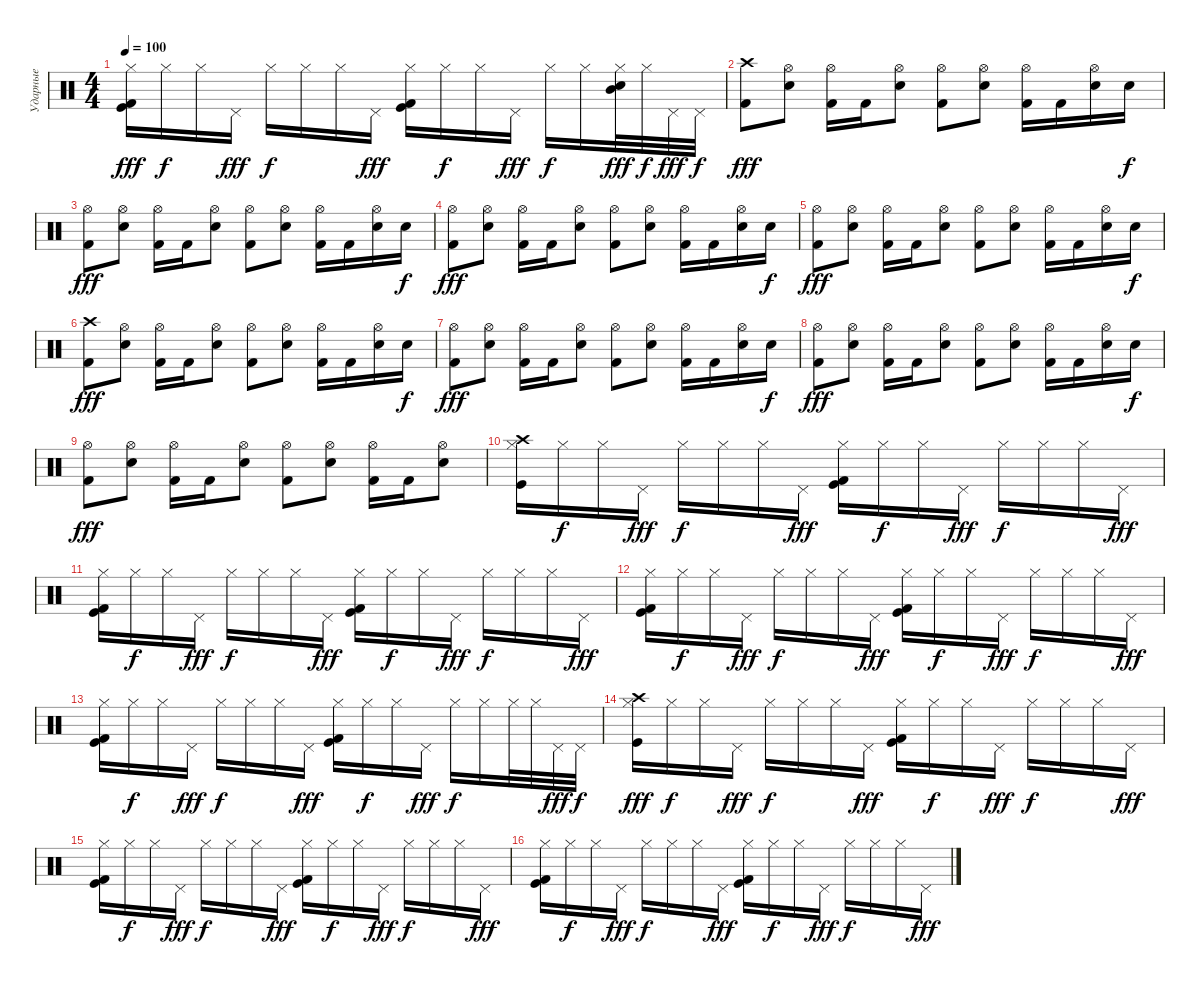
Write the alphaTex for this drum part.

\track ("Ударные" "Ударные") {instrument percussion}
\staff {score}
\articulation defaults
\ts (4 4)
\tempo 100
\clef neutral
\ks c
("Hi-Hat (closed)" "Kick (hit)" "Kick (hit) 2").16{dy fff} "Hi-Hat (closed)".16{dy f} "Hi-Hat (closed)".16 "Pedal Hi-Hat (hit)".16{dy fff} "Hi-Hat (closed)".16{dy f} "Hi-Hat (closed)".16 "Hi-Hat (closed)".16 "Pedal Hi-Hat (hit)".16{dy fff} ("Hi-Hat (closed)" "Kick (hit)" "Kick (hit) 2").16 "Hi-Hat (closed)".16{dy f} "Hi-Hat (closed)".16 "Pedal Hi-Hat (hit)".16{dy fff} "Hi-Hat (closed)".16{dy f} "Hi-Hat (closed)".16 ("Hi-Hat (closed)" "Snare (hit) 2" "Mid Tom (hit)").32{dy fff} "Hi-Hat (closed)".32{dy f} "Pedal Hi-Hat (hit)".32{dy fff} "Pedal Hi-Hat (hit)".32{dy f} |
("Crash high (hit)" "Kick (hit) 2").8{dy fff} ("Hi-Hat (open)" "Snare (hit) 2").8 ("Hi-Hat (open)" "Kick (hit) 2").16 "Kick (hit) 2".16 ("Hi-Hat (open)" "Snare (hit) 2").8 ("Hi-Hat (open)" "Kick (hit) 2").8 ("Hi-Hat (open)" "Snare (hit) 2").8 ("Hi-Hat (open)" "Kick (hit) 2").16 "Kick (hit) 2".16 ("Hi-Hat (open)" "Snare (hit) 2").16 "Snare (hit) 2".16{dy f} |
("Hi-Hat (open)" "Kick (hit) 2").8{dy fff} ("Hi-Hat (open)" "Snare (hit) 2").8 ("Hi-Hat (open)" "Kick (hit) 2").16 "Kick (hit) 2".16 ("Hi-Hat (open)" "Snare (hit) 2").8 ("Hi-Hat (open)" "Kick (hit) 2").8 ("Hi-Hat (open)" "Snare (hit) 2").8 ("Hi-Hat (open)" "Kick (hit) 2").16 "Kick (hit) 2".16 ("Hi-Hat (open)" "Snare (hit) 2").16 "Snare (hit) 2".16{dy f} |
("Hi-Hat (open)" "Kick (hit) 2").8{dy fff} ("Hi-Hat (open)" "Snare (hit) 2").8 ("Hi-Hat (open)" "Kick (hit) 2").16 "Kick (hit) 2".16 ("Hi-Hat (open)" "Snare (hit) 2").8 ("Hi-Hat (open)" "Kick (hit) 2").8 ("Hi-Hat (open)" "Snare (hit) 2").8 ("Hi-Hat (open)" "Kick (hit) 2").16 "Kick (hit) 2".16 ("Hi-Hat (open)" "Snare (hit) 2").16 "Snare (hit) 2".16{dy f} |
("Hi-Hat (open)" "Kick (hit) 2").8{dy fff} ("Hi-Hat (open)" "Snare (hit) 2").8 ("Hi-Hat (open)" "Kick (hit) 2").16 "Kick (hit) 2".16 ("Hi-Hat (open)" "Snare (hit) 2").8 ("Hi-Hat (open)" "Kick (hit) 2").8 ("Hi-Hat (open)" "Snare (hit) 2").8 ("Hi-Hat (open)" "Kick (hit) 2").16 "Kick (hit) 2".16 ("Hi-Hat (open)" "Snare (hit) 2").16 "Snare (hit) 2".16{dy f} |
("Crash high (hit)" "Kick (hit) 2").8{dy fff} ("Hi-Hat (open)" "Snare (hit) 2").8 ("Hi-Hat (open)" "Kick (hit) 2").16 "Kick (hit) 2".16 ("Hi-Hat (open)" "Snare (hit) 2").8 ("Hi-Hat (open)" "Kick (hit) 2").8 ("Hi-Hat (open)" "Snare (hit) 2").8 ("Hi-Hat (open)" "Kick (hit) 2").16 "Kick (hit) 2".16 ("Hi-Hat (open)" "Snare (hit) 2").16 "Snare (hit) 2".16{dy f} |
("Hi-Hat (open)" "Kick (hit) 2").8{dy fff} ("Hi-Hat (open)" "Snare (hit) 2").8 ("Hi-Hat (open)" "Kick (hit) 2").16 "Kick (hit) 2".16 ("Hi-Hat (open)" "Snare (hit) 2").8 ("Hi-Hat (open)" "Kick (hit) 2").8 ("Hi-Hat (open)" "Snare (hit) 2").8 ("Hi-Hat (open)" "Kick (hit) 2").16 "Kick (hit) 2".16 ("Hi-Hat (open)" "Snare (hit) 2").16 "Snare (hit) 2".16{dy f} |
("Hi-Hat (open)" "Kick (hit) 2").8{dy fff} ("Hi-Hat (open)" "Snare (hit) 2").8 ("Hi-Hat (open)" "Kick (hit) 2").16 "Kick (hit) 2".16 ("Hi-Hat (open)" "Snare (hit) 2").8 ("Hi-Hat (open)" "Kick (hit) 2").8 ("Hi-Hat (open)" "Snare (hit) 2").8 ("Hi-Hat (open)" "Kick (hit) 2").16 "Kick (hit) 2".16 ("Hi-Hat (open)" "Snare (hit) 2").16 "Snare (hit) 2".16{dy f} |
("Hi-Hat (open)" "Kick (hit) 2").8{dy fff} ("Hi-Hat (open)" "Snare (hit) 2").8 ("Hi-Hat (open)" "Kick (hit) 2").16 "Kick (hit) 2".16 ("Hi-Hat (open)" "Snare (hit) 2").8 ("Hi-Hat (open)" "Kick (hit) 2").8 ("Hi-Hat (open)" "Snare (hit) 2").8 ("Hi-Hat (open)" "Kick (hit) 2").16 "Kick (hit) 2".16 ("Hi-Hat (open)" "Snare (hit) 2").8 |
("Hi-Hat (closed)" "Kick (hit)" "Crash high (hit)").16 "Hi-Hat (closed)".16{dy f} "Hi-Hat (closed)".16 "Pedal Hi-Hat (hit)".16{dy fff} "Hi-Hat (closed)".16{dy f} "Hi-Hat (closed)".16 "Hi-Hat (closed)".16 "Pedal Hi-Hat (hit)".16{dy fff} ("Hi-Hat (closed)" "Kick (hit)" "Kick (hit) 2").16 "Hi-Hat (closed)".16{dy f} "Hi-Hat (closed)".16 "Pedal Hi-Hat (hit)".16{dy fff} "Hi-Hat (closed)".16{dy f} "Hi-Hat (closed)".16 "Hi-Hat (closed)".16 "Pedal Hi-Hat (hit)".16{dy fff} |
("Hi-Hat (closed)" "Kick (hit)" "Kick (hit) 2").16 "Hi-Hat (closed)".16{dy f} "Hi-Hat (closed)".16 "Pedal Hi-Hat (hit)".16{dy fff} "Hi-Hat (closed)".16{dy f} "Hi-Hat (closed)".16 "Hi-Hat (closed)".16 "Pedal Hi-Hat (hit)".16{dy fff} ("Hi-Hat (closed)" "Kick (hit)" "Kick (hit) 2").16 "Hi-Hat (closed)".16{dy f} "Hi-Hat (closed)".16 "Pedal Hi-Hat (hit)".16{dy fff} "Hi-Hat (closed)".16{dy f} "Hi-Hat (closed)".16 "Hi-Hat (closed)".16 "Pedal Hi-Hat (hit)".16{dy fff} |
("Hi-Hat (closed)" "Kick (hit)" "Kick (hit) 2").16 "Hi-Hat (closed)".16{dy f} "Hi-Hat (closed)".16 "Pedal Hi-Hat (hit)".16{dy fff} "Hi-Hat (closed)".16{dy f} "Hi-Hat (closed)".16 "Hi-Hat (closed)".16 "Pedal Hi-Hat (hit)".16{dy fff} ("Hi-Hat (closed)" "Kick (hit)" "Kick (hit) 2").16 "Hi-Hat (closed)".16{dy f} "Hi-Hat (closed)".16 "Pedal Hi-Hat (hit)".16{dy fff} "Hi-Hat (closed)".16{dy f} "Hi-Hat (closed)".16 "Hi-Hat (closed)".16 "Pedal Hi-Hat (hit)".16{dy fff} |
("Hi-Hat (closed)" "Kick (hit)" "Kick (hit) 2").16 "Hi-Hat (closed)".16{dy f} "Hi-Hat (closed)".16 "Pedal Hi-Hat (hit)".16{dy fff} "Hi-Hat (closed)".16{dy f} "Hi-Hat (closed)".16 "Hi-Hat (closed)".16 "Pedal Hi-Hat (hit)".16{dy fff} ("Hi-Hat (closed)" "Kick (hit)" "Kick (hit) 2").16 "Hi-Hat (closed)".16{dy f} "Hi-Hat (closed)".16 "Pedal Hi-Hat (hit)".16{dy fff} "Hi-Hat (closed)".16{dy f} "Hi-Hat (closed)".16 "Hi-Hat (closed)".32 "Hi-Hat (closed)".32 "Pedal Hi-Hat (hit)".32{dy fff} "Pedal Hi-Hat (hit)".32{dy f} |
("Hi-Hat (closed)" "Kick (hit)" "Crash high (hit)").16{dy fff} "Hi-Hat (closed)".16{dy f} "Hi-Hat (closed)".16 "Pedal Hi-Hat (hit)".16{dy fff} "Hi-Hat (closed)".16{dy f} "Hi-Hat (closed)".16 "Hi-Hat (closed)".16 "Pedal Hi-Hat (hit)".16{dy fff} ("Hi-Hat (closed)" "Kick (hit)" "Kick (hit) 2").16 "Hi-Hat (closed)".16{dy f} "Hi-Hat (closed)".16 "Pedal Hi-Hat (hit)".16{dy fff} "Hi-Hat (closed)".16{dy f} "Hi-Hat (closed)".16 "Hi-Hat (closed)".16 "Pedal Hi-Hat (hit)".16{dy fff} |
("Hi-Hat (closed)" "Kick (hit)" "Kick (hit) 2").16 "Hi-Hat (closed)".16{dy f} "Hi-Hat (closed)".16 "Pedal Hi-Hat (hit)".16{dy fff} "Hi-Hat (closed)".16{dy f} "Hi-Hat (closed)".16 "Hi-Hat (closed)".16 "Pedal Hi-Hat (hit)".16{dy fff} ("Hi-Hat (closed)" "Kick (hit)" "Kick (hit) 2").16 "Hi-Hat (closed)".16{dy f} "Hi-Hat (closed)".16 "Pedal Hi-Hat (hit)".16{dy fff} "Hi-Hat (closed)".16{dy f} "Hi-Hat (closed)".16 "Hi-Hat (closed)".16 "Pedal Hi-Hat (hit)".16{dy fff} |
("Hi-Hat (closed)" "Kick (hit)" "Kick (hit) 2").16 "Hi-Hat (closed)".16{dy f} "Hi-Hat (closed)".16 "Pedal Hi-Hat (hit)".16{dy fff} "Hi-Hat (closed)".16{dy f} "Hi-Hat (closed)".16 "Hi-Hat (closed)".16 "Pedal Hi-Hat (hit)".16{dy fff} ("Hi-Hat (closed)" "Kick (hit)" "Kick (hit) 2").16 "Hi-Hat (closed)".16{dy f} "Hi-Hat (closed)".16 "Pedal Hi-Hat (hit)".16{dy fff} "Hi-Hat (closed)".16{dy f} "Hi-Hat (closed)".16 "Hi-Hat (closed)".16 "Pedal Hi-Hat (hit)".16{dy fff}
